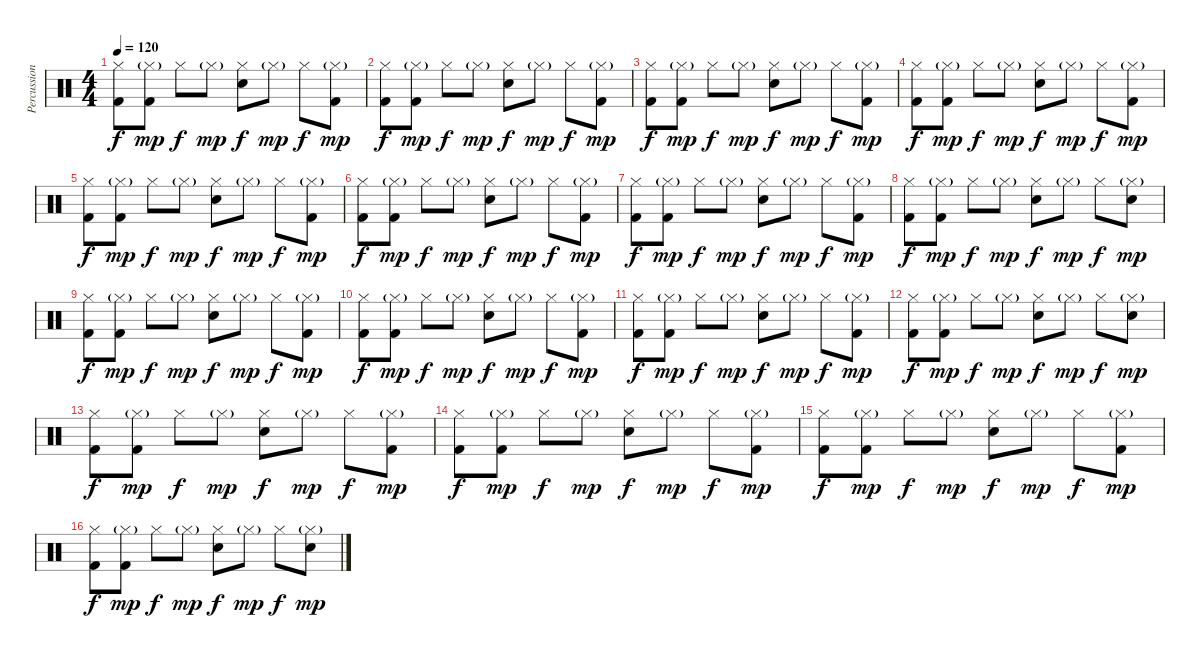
\track ("Percussions" "Percussion") {instrument percussion}
\staff {score}
\articulation defaults
\ts (4 4)
\tempo 120
\clef neutral
\ks c
("Hi-Hat (closed)" "Kick (hit) 2").8{dy f} ("Hi-Hat (closed)"{g} "Kick (hit) 2").8{dy mp} "Hi-Hat (closed)".8{dy f} "Hi-Hat (closed)"{g}.8{dy mp} ("Hi-Hat (closed)" "Snare (hit) 2").8{dy f} "Hi-Hat (closed)"{g}.8{dy mp} "Hi-Hat (closed)".8{dy f} ("Hi-Hat (closed)"{g} "Kick (hit) 2").8{dy mp} |
("Hi-Hat (closed)" "Kick (hit) 2").8{dy f} ("Hi-Hat (closed)"{g} "Kick (hit) 2").8{dy mp} "Hi-Hat (closed)".8{dy f} "Hi-Hat (closed)"{g}.8{dy mp} ("Hi-Hat (closed)" "Snare (hit) 2").8{dy f} "Hi-Hat (closed)"{g}.8{dy mp} "Hi-Hat (closed)".8{dy f} ("Hi-Hat (closed)"{g} "Kick (hit) 2").8{dy mp} |
("Hi-Hat (closed)" "Kick (hit) 2").8{dy f} ("Hi-Hat (closed)"{g} "Kick (hit) 2").8{dy mp} "Hi-Hat (closed)".8{dy f} "Hi-Hat (closed)"{g}.8{dy mp} ("Hi-Hat (closed)" "Snare (hit) 2").8{dy f} "Hi-Hat (closed)"{g}.8{dy mp} "Hi-Hat (closed)".8{dy f} ("Hi-Hat (closed)"{g} "Kick (hit) 2").8{dy mp} |
("Hi-Hat (closed)" "Kick (hit) 2").8{dy f} ("Hi-Hat (closed)"{g} "Kick (hit) 2").8{dy mp} "Hi-Hat (closed)".8{dy f} "Hi-Hat (closed)"{g}.8{dy mp} ("Hi-Hat (closed)" "Snare (hit) 2").8{dy f} "Hi-Hat (closed)"{g}.8{dy mp} "Hi-Hat (closed)".8{dy f} ("Hi-Hat (closed)"{g} "Kick (hit) 2").8{dy mp} |
("Hi-Hat (closed)" "Kick (hit) 2").8{dy f} ("Hi-Hat (closed)"{g} "Kick (hit) 2").8{dy mp} "Hi-Hat (closed)".8{dy f} "Hi-Hat (closed)"{g}.8{dy mp} ("Hi-Hat (closed)" "Snare (hit) 2").8{dy f} "Hi-Hat (closed)"{g}.8{dy mp} "Hi-Hat (closed)".8{dy f} ("Hi-Hat (closed)"{g} "Kick (hit) 2").8{dy mp} |
("Hi-Hat (closed)" "Kick (hit) 2").8{dy f} ("Hi-Hat (closed)"{g} "Kick (hit) 2").8{dy mp} "Hi-Hat (closed)".8{dy f} "Hi-Hat (closed)"{g}.8{dy mp} ("Hi-Hat (closed)" "Snare (hit) 2").8{dy f} "Hi-Hat (closed)"{g}.8{dy mp} "Hi-Hat (closed)".8{dy f} ("Hi-Hat (closed)"{g} "Kick (hit) 2").8{dy mp} |
("Hi-Hat (closed)" "Kick (hit) 2").8{dy f} ("Hi-Hat (closed)"{g} "Kick (hit) 2").8{dy mp} "Hi-Hat (closed)".8{dy f} "Hi-Hat (closed)"{g}.8{dy mp} ("Hi-Hat (closed)" "Snare (hit) 2").8{dy f} "Hi-Hat (closed)"{g}.8{dy mp} "Hi-Hat (closed)".8{dy f} ("Hi-Hat (closed)"{g} "Kick (hit) 2").8{dy mp} |
("Hi-Hat (closed)" "Kick (hit) 2").8{dy f} ("Hi-Hat (closed)"{g} "Kick (hit) 2").8{dy mp} "Hi-Hat (closed)".8{dy f} "Hi-Hat (closed)"{g}.8{dy mp} ("Hi-Hat (closed)" "Snare (hit) 2").8{dy f} "Hi-Hat (closed)"{g}.8{dy mp} "Hi-Hat (closed)".8{dy f} ("Hi-Hat (closed)"{g} "Snare (hit) 2").8{dy mp} |
("Hi-Hat (closed)" "Kick (hit) 2").8{dy f} ("Hi-Hat (closed)"{g} "Kick (hit) 2").8{dy mp} "Hi-Hat (closed)".8{dy f} "Hi-Hat (closed)"{g}.8{dy mp} ("Hi-Hat (closed)" "Snare (hit) 2").8{dy f} "Hi-Hat (closed)"{g}.8{dy mp} "Hi-Hat (closed)".8{dy f} ("Hi-Hat (closed)"{g} "Kick (hit) 2").8{dy mp} |
("Hi-Hat (closed)" "Kick (hit) 2").8{dy f} ("Hi-Hat (closed)"{g} "Kick (hit) 2").8{dy mp} "Hi-Hat (closed)".8{dy f} "Hi-Hat (closed)"{g}.8{dy mp} ("Hi-Hat (closed)" "Snare (hit) 2").8{dy f} "Hi-Hat (closed)"{g}.8{dy mp} "Hi-Hat (closed)".8{dy f} ("Hi-Hat (closed)"{g} "Kick (hit) 2").8{dy mp} |
("Hi-Hat (closed)" "Kick (hit) 2").8{dy f} ("Hi-Hat (closed)"{g} "Kick (hit) 2").8{dy mp} "Hi-Hat (closed)".8{dy f} "Hi-Hat (closed)"{g}.8{dy mp} ("Hi-Hat (closed)" "Snare (hit) 2").8{dy f} "Hi-Hat (closed)"{g}.8{dy mp} "Hi-Hat (closed)".8{dy f} ("Hi-Hat (closed)"{g} "Kick (hit) 2").8{dy mp} |
("Hi-Hat (closed)" "Kick (hit) 2").8{dy f} ("Hi-Hat (closed)"{g} "Kick (hit) 2").8{dy mp} "Hi-Hat (closed)".8{dy f} "Hi-Hat (closed)"{g}.8{dy mp} ("Hi-Hat (closed)" "Snare (hit) 2").8{dy f} "Hi-Hat (closed)"{g}.8{dy mp} "Hi-Hat (closed)".8{dy f} ("Hi-Hat (closed)"{g} "Snare (hit) 2").8{dy mp} |
("Hi-Hat (closed)" "Kick (hit) 2").8{dy f} ("Hi-Hat (closed)"{g} "Kick (hit) 2").8{dy mp} "Hi-Hat (closed)".8{dy f} "Hi-Hat (closed)"{g}.8{dy mp} ("Hi-Hat (closed)" "Snare (hit) 2").8{dy f} "Hi-Hat (closed)"{g}.8{dy mp} "Hi-Hat (closed)".8{dy f} ("Hi-Hat (closed)"{g} "Kick (hit) 2").8{dy mp} |
("Hi-Hat (closed)" "Kick (hit) 2").8{dy f} ("Hi-Hat (closed)"{g} "Kick (hit) 2").8{dy mp} "Hi-Hat (closed)".8{dy f} "Hi-Hat (closed)"{g}.8{dy mp} ("Hi-Hat (closed)" "Snare (hit) 2").8{dy f} "Hi-Hat (closed)"{g}.8{dy mp} "Hi-Hat (closed)".8{dy f} ("Hi-Hat (closed)"{g} "Kick (hit) 2").8{dy mp} |
("Hi-Hat (closed)" "Kick (hit) 2").8{dy f} ("Hi-Hat (closed)"{g} "Kick (hit) 2").8{dy mp} "Hi-Hat (closed)".8{dy f} "Hi-Hat (closed)"{g}.8{dy mp} ("Hi-Hat (closed)" "Snare (hit) 2").8{dy f} "Hi-Hat (closed)"{g}.8{dy mp} "Hi-Hat (closed)".8{dy f} ("Hi-Hat (closed)"{g} "Kick (hit) 2").8{dy mp} |
("Hi-Hat (closed)" "Kick (hit) 2").8{dy f} ("Hi-Hat (closed)"{g} "Kick (hit) 2").8{dy mp} "Hi-Hat (closed)".8{dy f} "Hi-Hat (closed)"{g}.8{dy mp} ("Hi-Hat (closed)" "Snare (hit) 2").8{dy f} "Hi-Hat (closed)"{g}.8{dy mp} "Hi-Hat (closed)".8{dy f} ("Hi-Hat (closed)"{g} "Snare (hit) 2").8{dy mp}
